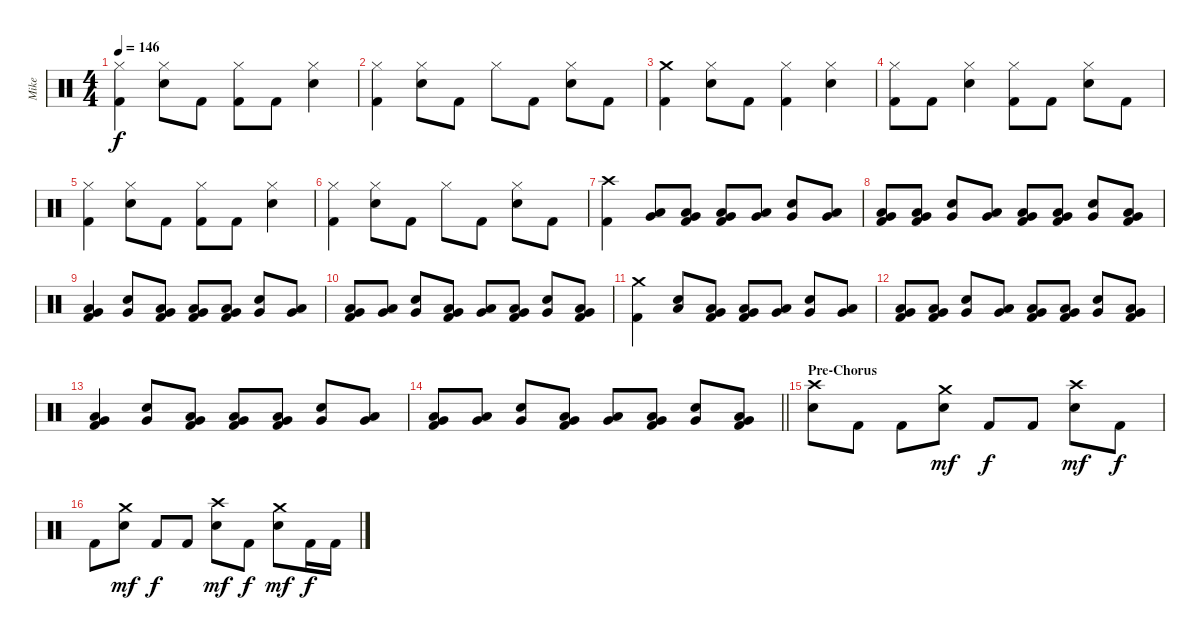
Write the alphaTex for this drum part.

\track ("Mike" "Mike") {instrument percussion}
\staff {score}
\articulation defaults
\ts (4 4)
\tempo 146
\clef neutral
\ks c
("Hi-Hat (closed)" "Kick (hit) 2").4{dy f} ("Snare (hit) 2" "Hi-Hat (closed)").8 "Kick (hit) 2".8 ("Hi-Hat (closed)" "Kick (hit) 2").8 "Kick (hit) 2".8 ("Snare (hit) 2" "Hi-Hat (closed)").4 |
("Hi-Hat (closed)" "Kick (hit) 2").4 ("Snare (hit) 2" "Hi-Hat (closed)").8 "Kick (hit) 2".8 "Hi-Hat (closed)".8 "Kick (hit) 2".8 ("Snare (hit) 2" "Hi-Hat (closed)").8 "Kick (hit) 2".8 |
("Crash medium (hit)" "Kick (hit) 2").4 ("Snare (hit) 2" "Hi-Hat (closed)").8 "Kick (hit) 2".8 ("Hi-Hat (closed)" "Kick (hit) 2").4 ("Snare (hit) 2" "Hi-Hat (closed)").4 |
("Hi-Hat (closed)" "Kick (hit) 2").8 "Kick (hit) 2".8 ("Snare (hit) 2" "Hi-Hat (closed)").4 ("Hi-Hat (closed)" "Kick (hit) 2").8 "Kick (hit) 2".8 ("Snare (hit) 2" "Hi-Hat (closed)").8 "Kick (hit) 2".8 |
("Hi-Hat (closed)" "Kick (hit) 2").4 ("Snare (hit) 2" "Hi-Hat (closed)").8 "Kick (hit) 2".8 ("Hi-Hat (closed)" "Kick (hit) 2").8 "Kick (hit) 2".8 ("Snare (hit) 2" "Hi-Hat (closed)").4 |
("Hi-Hat (closed)" "Kick (hit) 2").4 ("Snare (hit) 2" "Hi-Hat (closed)").8 "Kick (hit) 2".8 "Hi-Hat (closed)".8 "Kick (hit) 2".8 ("Snare (hit) 2" "Hi-Hat (closed)").8 "Kick (hit) 2".8 |
("Crash high (hit)" "Kick (hit) 2").4 ("Low Tom (hit)" "Very Low Tom (hit)").8 ("Very Low Tom (hit)" "Low Floor Tom (hit)" "Kick (hit) 2").8 ("Low Tom (hit)" "Very Low Tom (hit)" "Kick (hit) 2").8 ("Very Low Tom (hit)" "Low Floor Tom (hit)").8 ("Snare (hit) 2" "Very Low Tom (hit)").8 ("Very Low Tom (hit)" "Low Floor Tom (hit)").8 |
("Low Tom (hit)" "Very Low Tom (hit)" "Kick (hit) 2").8 ("Very Low Tom (hit)" "Low Floor Tom (hit)" "Kick (hit) 2").8 ("Snare (hit) 2" "Very Low Tom (hit)").8 ("Very Low Tom (hit)" "Low Floor Tom (hit)").8 ("Low Tom (hit)" "Very Low Tom (hit)" "Kick (hit) 2").8 ("Very Low Tom (hit)" "Low Floor Tom (hit)" "Kick (hit) 2").8 ("Snare (hit) 2" "Very Low Tom (hit)").8 ("Low Tom (hit)" "Very Low Tom (hit)" "Kick (hit) 2").8 |
("Very Low Tom (hit)" "Low Floor Tom (hit)" "Kick (hit) 2").4 ("Snare (hit) 2" "Very Low Tom (hit)").8 ("Very Low Tom (hit)" "Low Floor Tom (hit)" "Kick (hit) 2").8 ("Low Tom (hit)" "Very Low Tom (hit)" "Kick (hit) 2").8 ("Very Low Tom (hit)" "Low Floor Tom (hit)" "Kick (hit) 2").8 ("Snare (hit) 2" "Very Low Tom (hit)").8 ("Very Low Tom (hit)" "Low Floor Tom (hit)").8 |
("Low Tom (hit)" "Very Low Tom (hit)" "Kick (hit) 2").8 ("Very Low Tom (hit)" "Low Floor Tom (hit)").8 ("Snare (hit) 2" "Very Low Tom (hit)").8 ("Very Low Tom (hit)" "Low Floor Tom (hit)" "Kick (hit) 2").8 ("Low Tom (hit)" "Very Low Tom (hit)").8 ("Very Low Tom (hit)" "Low Floor Tom (hit)" "Kick (hit) 2").8 ("Snare (hit) 2" "Very Low Tom (hit)").8 ("Very Low Tom (hit)" "Low Floor Tom (hit)" "Kick (hit) 2").8 |
("Crash medium (hit)" "Kick (hit) 2").4 ("Snare (hit) 2" "Low Tom (hit)").8 ("Very Low Tom (hit)" "Low Floor Tom (hit)" "Kick (hit) 2").8 ("Low Tom (hit)" "Very Low Tom (hit)" "Kick (hit) 2").8 ("Very Low Tom (hit)" "Low Floor Tom (hit)").8 ("Snare (hit) 2" "Very Low Tom (hit)").8 ("Very Low Tom (hit)" "Low Floor Tom (hit)").8 |
("Low Tom (hit)" "Very Low Tom (hit)" "Kick (hit) 2").8 ("Very Low Tom (hit)" "Low Floor Tom (hit)" "Kick (hit) 2").8 ("Snare (hit) 2" "Very Low Tom (hit)").8 ("Very Low Tom (hit)" "Low Floor Tom (hit)").8 ("Low Tom (hit)" "Very Low Tom (hit)" "Kick (hit) 2").8 ("Very Low Tom (hit)" "Low Floor Tom (hit)" "Kick (hit) 2").8 ("Snare (hit) 2" "Very Low Tom (hit)").8 ("Low Tom (hit)" "Very Low Tom (hit)" "Kick (hit) 2").8 |
("Very Low Tom (hit)" "Low Floor Tom (hit)" "Kick (hit) 2").4 ("Snare (hit) 2" "Very Low Tom (hit)").8 ("Very Low Tom (hit)" "Low Floor Tom (hit)" "Kick (hit) 2").8 ("Low Tom (hit)" "Very Low Tom (hit)" "Kick (hit) 2").8 ("Very Low Tom (hit)" "Low Floor Tom (hit)" "Kick (hit) 2").8 ("Snare (hit) 2" "Very Low Tom (hit)").8 ("Very Low Tom (hit)" "Low Floor Tom (hit)").8 |
\barLineRight lightlight
("Low Tom (hit)" "Very Low Tom (hit)" "Kick (hit) 2").8 ("Very Low Tom (hit)" "Low Floor Tom (hit)").8 ("Snare (hit) 2" "Very Low Tom (hit)").8 ("Very Low Tom (hit)" "Low Floor Tom (hit)" "Kick (hit) 2").8 ("Low Tom (hit)" "Very Low Tom (hit)").8 ("Very Low Tom (hit)" "Low Floor Tom (hit)" "Kick (hit) 2").8 ("Snare (hit) 2" "Very Low Tom (hit)").8 ("Very Low Tom (hit)" "Low Floor Tom (hit)" "Kick (hit) 2").8 |
\section ("" "Pre-Chorus")
("Crash high (hit)" "Snare (hit) 2").8 "Kick (hit) 2".8 "Kick (hit) 2".8 ("Crash medium (hit)" "Snare (hit) 2").8{dy mf} "Kick (hit) 2".8{dy f} "Kick (hit) 2".8 ("Crash high (hit)" "Snare (hit) 2").8{dy mf} "Kick (hit) 2".8{dy f} |
"Kick (hit) 2".8 ("Crash medium (hit)" "Snare (hit) 2").8{dy mf} "Kick (hit) 2".8{dy f} "Kick (hit) 2".8 ("Crash high (hit)" "Snare (hit) 2").8{dy mf} "Kick (hit) 2".8{dy f} ("Crash medium (hit)" "Snare (hit) 2").8{dy mf} "Kick (hit) 2".16{dy f} "Kick (hit) 2".16
